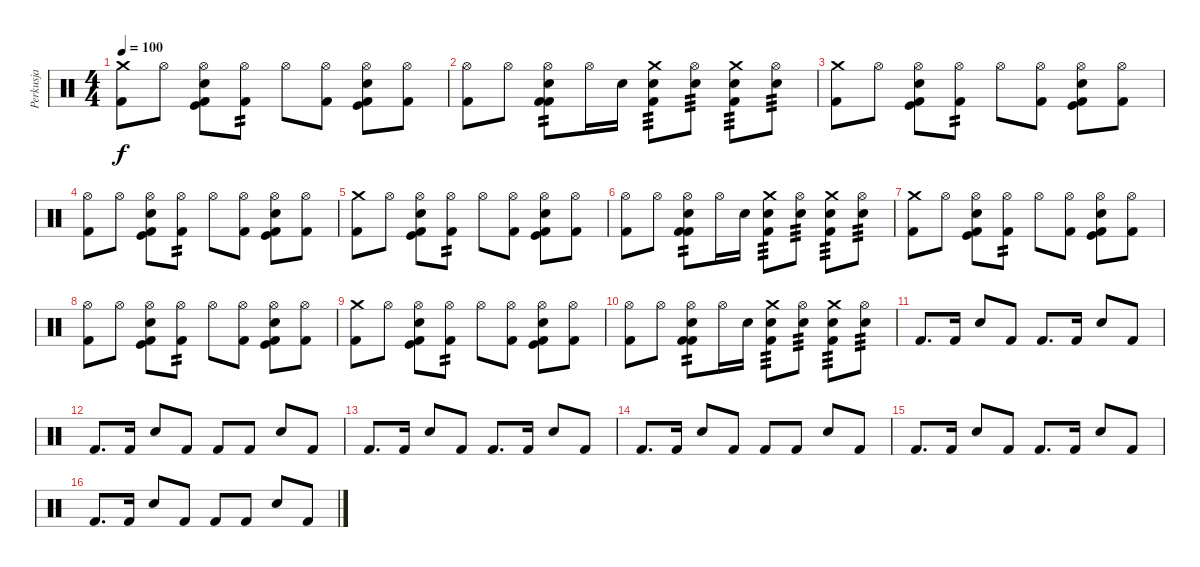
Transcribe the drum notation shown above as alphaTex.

\track ("Perkusja" "Perkusja") {instrument percussion}
\staff {score}
\articulation defaults
\ts (4 4)
\tempo 100
\clef neutral
\ks c
("Crash medium (hit)" "Kick (hit) 2").8{dy f} "Hi-Hat (open)".8 ("Hi-Hat (open)" "Electric Snare (hit)" "Kick (hit) 2" "Kick (hit)").8 ("Hi-Hat (open)" "Kick (hit) 2").8{tp 2} "Hi-Hat (open)".8 ("Hi-Hat (open)" "Kick (hit) 2").8 ("Hi-Hat (open)" "Electric Snare (hit)" "Kick (hit) 2" "Kick (hit)").8 ("Hi-Hat (open)" "Kick (hit) 2").8 |
("Hi-Hat (open)" "Kick (hit) 2").8 "Hi-Hat (open)".8 ("Hi-Hat (open)" "Electric Snare (hit)" "Kick (hit) 2" "Kick (hit) 2").8{tp 2} "Hi-Hat (open)".16 "Electric Snare (hit)".16 ("Crash medium (hit)" "Snare (hit) 2" "Kick (hit) 2").8{tp 3} ("Hi-Hat (open)" "Snare (hit) 2").8{tp 3} ("Crash medium (hit)" "Electric Snare (hit)" "Kick (hit) 2").8{tp 3} ("Hi-Hat (open)" "Electric Snare (hit)").8{tp 3} |
("Crash medium (hit)" "Kick (hit) 2").8 "Hi-Hat (open)".8 ("Hi-Hat (open)" "Electric Snare (hit)" "Kick (hit) 2" "Kick (hit)").8 ("Hi-Hat (open)" "Kick (hit) 2").8{tp 2} "Hi-Hat (open)".8 ("Hi-Hat (open)" "Kick (hit) 2").8 ("Hi-Hat (open)" "Electric Snare (hit)" "Kick (hit) 2" "Kick (hit)").8 ("Hi-Hat (open)" "Kick (hit) 2").8 |
("Hi-Hat (open)" "Kick (hit) 2").8 "Hi-Hat (open)".8 ("Hi-Hat (open)" "Electric Snare (hit)" "Kick (hit) 2" "Kick (hit)").8 ("Hi-Hat (open)" "Kick (hit) 2").8{tp 2} "Hi-Hat (open)".8 ("Hi-Hat (open)" "Kick (hit) 2").8 ("Hi-Hat (open)" "Electric Snare (hit)" "Kick (hit) 2" "Kick (hit)").8 ("Hi-Hat (open)" "Kick (hit) 2").8 |
("Crash medium (hit)" "Kick (hit) 2").8 "Hi-Hat (open)".8 ("Hi-Hat (open)" "Electric Snare (hit)" "Kick (hit) 2" "Kick (hit)").8 ("Hi-Hat (open)" "Kick (hit) 2").8{tp 2} "Hi-Hat (open)".8 ("Hi-Hat (open)" "Kick (hit) 2").8 ("Hi-Hat (open)" "Electric Snare (hit)" "Kick (hit) 2" "Kick (hit)").8 ("Hi-Hat (open)" "Kick (hit) 2").8 |
("Hi-Hat (open)" "Kick (hit) 2").8 "Hi-Hat (open)".8 ("Hi-Hat (open)" "Electric Snare (hit)" "Kick (hit) 2" "Kick (hit) 2").8{tp 2} "Hi-Hat (open)".16 "Electric Snare (hit)".16 ("Crash medium (hit)" "Snare (hit) 2" "Kick (hit) 2").8{tp 3} ("Hi-Hat (open)" "Snare (hit) 2").8{tp 3} ("Crash medium (hit)" "Electric Snare (hit)" "Kick (hit) 2").8{tp 3} ("Hi-Hat (open)" "Electric Snare (hit)").8{tp 3} |
("Crash medium (hit)" "Kick (hit) 2").8 "Hi-Hat (open)".8 ("Hi-Hat (open)" "Electric Snare (hit)" "Kick (hit) 2" "Kick (hit)").8 ("Hi-Hat (open)" "Kick (hit) 2").8{tp 2} "Hi-Hat (open)".8 ("Hi-Hat (open)" "Kick (hit) 2").8 ("Hi-Hat (open)" "Electric Snare (hit)" "Kick (hit) 2" "Kick (hit)").8 ("Hi-Hat (open)" "Kick (hit) 2").8 |
("Hi-Hat (open)" "Kick (hit) 2").8 "Hi-Hat (open)".8 ("Hi-Hat (open)" "Electric Snare (hit)" "Kick (hit) 2" "Kick (hit)").8 ("Hi-Hat (open)" "Kick (hit) 2").8{tp 2} "Hi-Hat (open)".8 ("Hi-Hat (open)" "Kick (hit) 2").8 ("Hi-Hat (open)" "Electric Snare (hit)" "Kick (hit) 2" "Kick (hit)").8 ("Hi-Hat (open)" "Kick (hit) 2").8 |
("Crash medium (hit)" "Kick (hit) 2").8 "Hi-Hat (open)".8 ("Hi-Hat (open)" "Electric Snare (hit)" "Kick (hit) 2" "Kick (hit)").8 ("Hi-Hat (open)" "Kick (hit) 2").8{tp 2} "Hi-Hat (open)".8 ("Hi-Hat (open)" "Kick (hit) 2").8 ("Hi-Hat (open)" "Electric Snare (hit)" "Kick (hit) 2" "Kick (hit)").8 ("Hi-Hat (open)" "Kick (hit) 2").8 |
("Hi-Hat (open)" "Kick (hit) 2").8 "Hi-Hat (open)".8 ("Hi-Hat (open)" "Electric Snare (hit)" "Kick (hit) 2" "Kick (hit) 2").8{tp 2} "Hi-Hat (open)".16 "Electric Snare (hit)".16 ("Crash medium (hit)" "Snare (hit) 2" "Kick (hit) 2").8{tp 3} ("Hi-Hat (open)" "Snare (hit) 2").8{tp 3} ("Crash medium (hit)" "Electric Snare (hit)" "Kick (hit) 2").8{tp 3} ("Hi-Hat (open)" "Electric Snare (hit)").8{tp 3} |
"Kick (hit) 2".8{d} "Kick (hit) 2".16 "Electric Snare (hit)".8 "Kick (hit) 2".8 "Kick (hit) 2".8{d} "Kick (hit) 2".16 "Electric Snare (hit)".8 "Kick (hit) 2".8 |
"Kick (hit) 2".8{d} "Kick (hit) 2".16 "Electric Snare (hit)".8 "Kick (hit) 2".8 "Kick (hit) 2".8 "Kick (hit) 2".8 "Electric Snare (hit)".8 "Kick (hit) 2".8 |
"Kick (hit) 2".8{d} "Kick (hit) 2".16 "Electric Snare (hit)".8 "Kick (hit) 2".8 "Kick (hit) 2".8{d} "Kick (hit) 2".16 "Electric Snare (hit)".8 "Kick (hit) 2".8 |
"Kick (hit) 2".8{d} "Kick (hit) 2".16 "Electric Snare (hit)".8 "Kick (hit) 2".8 "Kick (hit) 2".8 "Kick (hit) 2".8 "Electric Snare (hit)".8 "Kick (hit) 2".8 |
"Kick (hit) 2".8{d} "Kick (hit) 2".16 "Electric Snare (hit)".8 "Kick (hit) 2".8 "Kick (hit) 2".8{d} "Kick (hit) 2".16 "Electric Snare (hit)".8 "Kick (hit) 2".8 |
"Kick (hit) 2".8{d} "Kick (hit) 2".16 "Electric Snare (hit)".8 "Kick (hit) 2".8 "Kick (hit) 2".8 "Kick (hit) 2".8 "Electric Snare (hit)".8 "Kick (hit) 2".8
